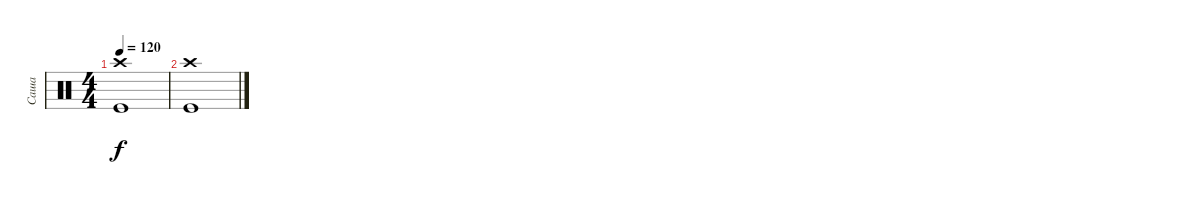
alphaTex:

\track ("Саша" "Саша") {instrument percussion}
\staff {score}
\articulation defaults
\ts (4 4)
\tempo 120
\clef neutral
\ks c
("Crash high (hit)" "Kick (hit)").1{dy f} |
("Crash high (hit)" "Kick (hit)").1
